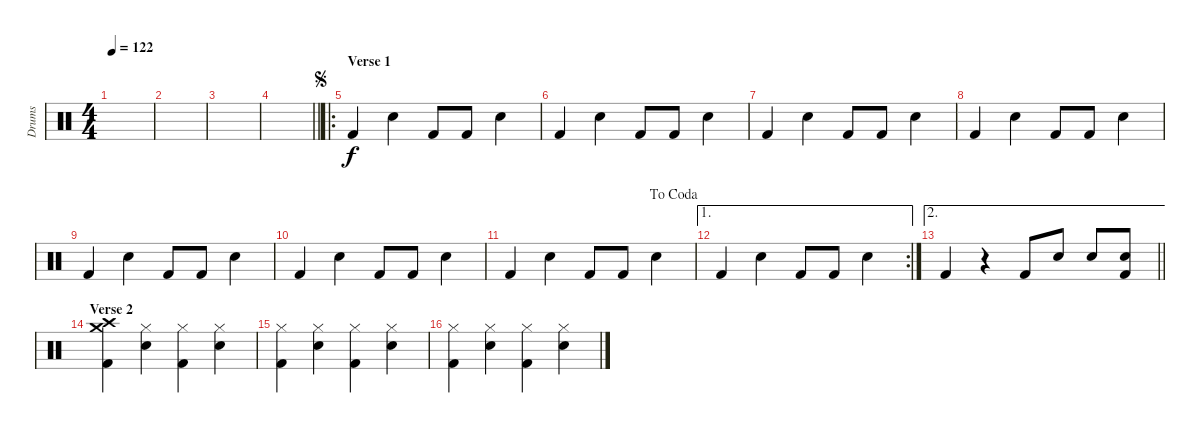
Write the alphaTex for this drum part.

\track ("Drums" "Drums") {instrument percussion}
\staff {score}
\articulation defaults
\ts (4 4)
\tempo 122
\clef neutral
\ks c
|
|
|
\barLineRight lightlight
|
\ro
\section ("" "Verse 1")
\jump segno "Kick (hit) 2".4 "Snare (hit) 2".4 "Kick (hit) 2".8 "Kick (hit) 2".8 "Snare (hit) 2".4
|
"Kick (hit) 2".4 "Snare (hit) 2".4 "Kick (hit) 2".8 "Kick (hit) 2".8 "Snare (hit) 2".4 |
"Kick (hit) 2".4 "Snare (hit) 2".4 "Kick (hit) 2".8 "Kick (hit) 2".8 "Snare (hit) 2".4 |
"Kick (hit) 2".4 "Snare (hit) 2".4 "Kick (hit) 2".8 "Kick (hit) 2".8 "Snare (hit) 2".4 |
"Kick (hit) 2".4 "Snare (hit) 2".4 "Kick (hit) 2".8 "Kick (hit) 2".8 "Snare (hit) 2".4 |
"Kick (hit) 2".4 "Snare (hit) 2".4 "Kick (hit) 2".8 "Kick (hit) 2".8 "Snare (hit) 2".4 |
\jump dacoda "Kick (hit) 2".4 "Snare (hit) 2".4 "Kick (hit) 2".8 "Kick (hit) 2".8 "Snare (hit) 2".4
|
\ae 1
\rc 2 "Kick (hit) 2".4 "Snare (hit) 2".4 "Kick (hit) 2".8 "Kick (hit) 2".8 "Snare (hit) 2".4
|
\ae 2
\barLineRight lightlight "Kick (hit) 2".4
r.4 "Kick (hit) 2".8 "Snare (hit) 2".8 "Snare (hit) 2".8 ("Snare (hit) 2" "Kick (hit) 2").8 |
\section ("" "Verse 2")
("Crash high (hit)" "Crash medium (hit)" "Kick (hit) 2").4 ("Hi-Hat (closed)" "Snare (hit) 2").4 ("Hi-Hat (closed)" "Kick (hit) 2").4 ("Hi-Hat (closed)" "Snare (hit) 2").4 |
("Hi-Hat (closed)" "Kick (hit) 2").4 ("Hi-Hat (closed)" "Snare (hit) 2").4 ("Hi-Hat (closed)" "Kick (hit) 2").4 ("Hi-Hat (closed)" "Snare (hit) 2").4 |
("Hi-Hat (closed)" "Kick (hit) 2").4 ("Hi-Hat (closed)" "Snare (hit) 2").4 ("Hi-Hat (closed)" "Kick (hit) 2").4 ("Hi-Hat (closed)" "Snare (hit) 2").4
